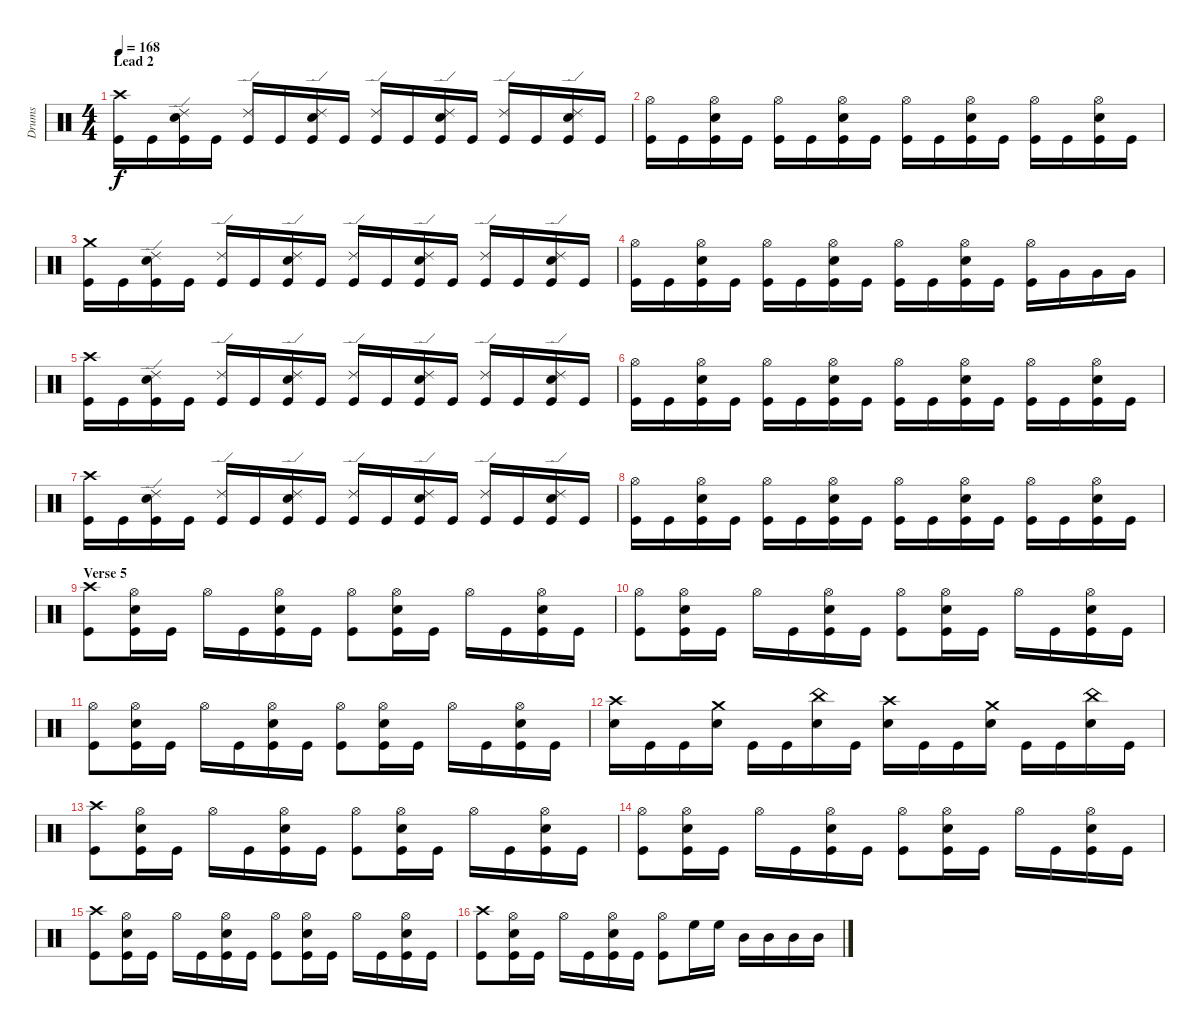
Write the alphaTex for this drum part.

\track ("Drums" "Drums") {instrument percussion}
\staff {score}
\articulation defaults
\ts (4 4)
\section ("" "Lead 2")
\tempo 168
\clef neutral
\ks c
("Crash high (hit)" "Kick (hit)").16{dy f} "Kick (hit)".16 ("Ride (edge) 2" "Electric Snare (hit)" "Kick (hit)").16 "Kick (hit)".16 ("Ride (edge) 2" "Kick (hit)").16 "Kick (hit)".16 ("Ride (edge) 2" "Electric Snare (hit)" "Kick (hit)").16 "Kick (hit)".16 ("Ride (edge) 2" "Kick (hit)").16 "Kick (hit)".16 ("Ride (edge) 2" "Electric Snare (hit)" "Kick (hit)").16 "Kick (hit)".16 ("Ride (edge) 2" "Kick (hit)").16 "Kick (hit)".16 ("Ride (edge) 2" "Electric Snare (hit)" "Kick (hit)").16 "Kick (hit)".16 |
("Hi-Hat (open)" "Kick (hit)").16 "Kick (hit)".16 ("Hi-Hat (open)" "Electric Snare (hit)" "Kick (hit)").16 "Kick (hit)".16 ("Hi-Hat (open)" "Kick (hit)").16 "Kick (hit)".16 ("Hi-Hat (open)" "Electric Snare (hit)" "Kick (hit)").16 "Kick (hit)".16 ("Hi-Hat (open)" "Kick (hit)").16 "Kick (hit)".16 ("Hi-Hat (open)" "Electric Snare (hit)" "Kick (hit)").16 "Kick (hit)".16 ("Hi-Hat (open)" "Kick (hit)").16 "Kick (hit)".16 ("Hi-Hat (open)" "Electric Snare (hit)" "Kick (hit)").16 "Kick (hit)".16 |
("Crash medium (hit)" "Kick (hit)").16 "Kick (hit)".16 ("Ride (edge) 2" "Electric Snare (hit)" "Kick (hit)").16 "Kick (hit)".16 ("Ride (edge) 2" "Kick (hit)").16 "Kick (hit)".16 ("Ride (edge) 2" "Electric Snare (hit)" "Kick (hit)").16 "Kick (hit)".16 ("Ride (edge) 2" "Kick (hit)").16 "Kick (hit)".16 ("Ride (edge) 2" "Electric Snare (hit)" "Kick (hit)").16 "Kick (hit)".16 ("Ride (edge) 2" "Kick (hit)").16 "Kick (hit)".16 ("Ride (edge) 2" "Electric Snare (hit)" "Kick (hit)").16 "Kick (hit)".16 |
("Hi-Hat (open)" "Kick (hit)").16 "Kick (hit)".16 ("Hi-Hat (open)" "Electric Snare (hit)" "Kick (hit)").16 "Kick (hit)".16 ("Hi-Hat (open)" "Kick (hit)").16 "Kick (hit)".16 ("Hi-Hat (open)" "Electric Snare (hit)" "Kick (hit)").16 "Kick (hit)".16 ("Hi-Hat (open)" "Kick (hit)").16 "Kick (hit)".16 ("Hi-Hat (open)" "Electric Snare (hit)" "Kick (hit)").16 "Kick (hit)".16 ("Hi-Hat (open)" "Kick (hit)").16 "Very Low Tom (hit)".16 "Very Low Tom (hit)".16 "Very Low Tom (hit)".16 |
("Crash high (hit)" "Kick (hit)").16 "Kick (hit)".16 ("Ride (edge) 2" "Electric Snare (hit)" "Kick (hit)").16 "Kick (hit)".16 ("Ride (edge) 2" "Kick (hit)").16 "Kick (hit)".16 ("Ride (edge) 2" "Electric Snare (hit)" "Kick (hit)").16 "Kick (hit)".16 ("Ride (edge) 2" "Kick (hit)").16 "Kick (hit)".16 ("Ride (edge) 2" "Electric Snare (hit)" "Kick (hit)").16 "Kick (hit)".16 ("Ride (edge) 2" "Kick (hit)").16 "Kick (hit)".16 ("Ride (edge) 2" "Electric Snare (hit)" "Kick (hit)").16 "Kick (hit)".16 |
("Hi-Hat (open)" "Kick (hit)").16 "Kick (hit)".16 ("Hi-Hat (open)" "Electric Snare (hit)" "Kick (hit)").16 "Kick (hit)".16 ("Hi-Hat (open)" "Kick (hit)").16 "Kick (hit)".16 ("Hi-Hat (open)" "Electric Snare (hit)" "Kick (hit)").16 "Kick (hit)".16 ("Hi-Hat (open)" "Kick (hit)").16 "Kick (hit)".16 ("Hi-Hat (open)" "Electric Snare (hit)" "Kick (hit)").16 "Kick (hit)".16 ("Hi-Hat (open)" "Kick (hit)").16 "Kick (hit)".16 ("Hi-Hat (open)" "Electric Snare (hit)" "Kick (hit)").16 "Kick (hit)".16 |
("Crash high (hit)" "Kick (hit)").16 "Kick (hit)".16 ("Ride (edge) 2" "Electric Snare (hit)" "Kick (hit)").16 "Kick (hit)".16 ("Ride (edge) 2" "Kick (hit)").16 "Kick (hit)".16 ("Ride (edge) 2" "Electric Snare (hit)" "Kick (hit)").16 "Kick (hit)".16 ("Ride (edge) 2" "Kick (hit)").16 "Kick (hit)".16 ("Ride (edge) 2" "Electric Snare (hit)" "Kick (hit)").16 "Kick (hit)".16 ("Ride (edge) 2" "Kick (hit)").16 "Kick (hit)".16 ("Ride (edge) 2" "Electric Snare (hit)" "Kick (hit)").16 "Kick (hit)".16 |
("Hi-Hat (open)" "Kick (hit)").16 "Kick (hit)".16 ("Hi-Hat (open)" "Electric Snare (hit)" "Kick (hit)").16 "Kick (hit)".16 ("Hi-Hat (open)" "Kick (hit)").16 "Kick (hit)".16 ("Hi-Hat (open)" "Electric Snare (hit)" "Kick (hit)").16 "Kick (hit)".16 ("Hi-Hat (open)" "Kick (hit)").16 "Kick (hit)".16 ("Hi-Hat (open)" "Electric Snare (hit)" "Kick (hit)").16 "Kick (hit)".16 ("Hi-Hat (open)" "Kick (hit)").16 "Kick (hit)".16 ("Hi-Hat (open)" "Electric Snare (hit)" "Kick (hit)").16 "Kick (hit)".16 |
\section ("" "Verse 5")
("Crash high (hit)" "Kick (hit)").8 ("Hi-Hat (open)" "Electric Snare (hit)" "Kick (hit)").16 "Kick (hit)".16 "Hi-Hat (open)".16 "Kick (hit)".16 ("Hi-Hat (open)" "Electric Snare (hit)" "Kick (hit)").16 "Kick (hit)".16 ("Hi-Hat (open)" "Kick (hit)").8 ("Hi-Hat (open)" "Electric Snare (hit)" "Kick (hit)").16 "Kick (hit)".16 "Hi-Hat (open)".16 "Kick (hit)".16 ("Hi-Hat (open)" "Electric Snare (hit)" "Kick (hit)").16 "Kick (hit)".16 |
("Hi-Hat (open)" "Kick (hit)").8 ("Hi-Hat (open)" "Electric Snare (hit)" "Kick (hit)").16 "Kick (hit)".16 "Hi-Hat (open)".16 "Kick (hit)".16 ("Hi-Hat (open)" "Electric Snare (hit)" "Kick (hit)").16 "Kick (hit)".16 ("Hi-Hat (open)" "Kick (hit)").8 ("Hi-Hat (open)" "Electric Snare (hit)" "Kick (hit)").16 "Kick (hit)".16 "Hi-Hat (open)".16 "Kick (hit)".16 ("Hi-Hat (open)" "Electric Snare (hit)" "Kick (hit)").16 "Kick (hit)".16 |
("Hi-Hat (open)" "Kick (hit)").8 ("Hi-Hat (open)" "Electric Snare (hit)" "Kick (hit)").16 "Kick (hit)".16 "Hi-Hat (open)".16 "Kick (hit)".16 ("Hi-Hat (open)" "Electric Snare (hit)" "Kick (hit)").16 "Kick (hit)".16 ("Hi-Hat (open)" "Kick (hit)").8 ("Hi-Hat (open)" "Electric Snare (hit)" "Kick (hit)").16 "Kick (hit)".16 "Hi-Hat (open)".16 "Kick (hit)".16 ("Hi-Hat (open)" "Electric Snare (hit)" "Kick (hit)").16 "Kick (hit)".16 |
("Crash high (hit)" "Electric Snare (hit)").16 "Kick (hit)".16 "Kick (hit)".16 ("Crash medium (hit)" "Electric Snare (hit)").16 "Kick (hit)".16 "Kick (hit)".16 ("China (hit)" "Electric Snare (hit)").16 "Kick (hit)".16 ("Crash high (hit)" "Electric Snare (hit)").16 "Kick (hit)".16 "Kick (hit)".16 ("Crash medium (hit)" "Electric Snare (hit)").16 "Kick (hit)".16 "Kick (hit)".16 ("China (hit)" "Electric Snare (hit)").16 "Kick (hit)".16 |
("Crash high (hit)" "Kick (hit)").8 ("Hi-Hat (open)" "Electric Snare (hit)" "Kick (hit)").16 "Kick (hit)".16 "Hi-Hat (open)".16 "Kick (hit)".16 ("Hi-Hat (open)" "Electric Snare (hit)" "Kick (hit)").16 "Kick (hit)".16 ("Hi-Hat (open)" "Kick (hit)").8 ("Hi-Hat (open)" "Electric Snare (hit)" "Kick (hit)").16 "Kick (hit)".16 "Hi-Hat (open)".16 "Kick (hit)".16 ("Hi-Hat (open)" "Electric Snare (hit)" "Kick (hit)").16 "Kick (hit)".16 |
("Hi-Hat (open)" "Kick (hit)").8 ("Hi-Hat (open)" "Electric Snare (hit)" "Kick (hit)").16 "Kick (hit)".16 "Hi-Hat (open)".16 "Kick (hit)".16 ("Hi-Hat (open)" "Electric Snare (hit)" "Kick (hit)").16 "Kick (hit)".16 ("Hi-Hat (open)" "Kick (hit)").8 ("Hi-Hat (open)" "Electric Snare (hit)" "Kick (hit)").16 "Kick (hit)".16 "Hi-Hat (open)".16 "Kick (hit)".16 ("Hi-Hat (open)" "Electric Snare (hit)" "Kick (hit)").16 "Kick (hit)".16 |
("Crash high (hit)" "Kick (hit)").8 ("Hi-Hat (open)" "Electric Snare (hit)" "Kick (hit)").16 "Kick (hit)".16 "Hi-Hat (open)".16 "Kick (hit)".16 ("Hi-Hat (open)" "Electric Snare (hit)" "Kick (hit)").16 "Kick (hit)".16 ("Hi-Hat (open)" "Kick (hit)").8 ("Hi-Hat (open)" "Electric Snare (hit)" "Kick (hit)").16 "Kick (hit)".16 "Hi-Hat (open)".16 "Kick (hit)".16 ("Hi-Hat (open)" "Electric Snare (hit)" "Kick (hit)").16 "Kick (hit)".16 |
("Crash high (hit)" "Kick (hit)").8 ("Hi-Hat (open)" "Electric Snare (hit)" "Kick (hit)").16 "Kick (hit)".16 "Hi-Hat (open)".16 "Kick (hit)".16 ("Hi-Hat (open)" "Electric Snare (hit)" "Kick (hit)").16 "Kick (hit)".16 ("Hi-Hat (open)" "Kick (hit)").8 "High Floor Tom (hit)".16 "High Floor Tom (hit)".16 "Mid Tom (hit)".16 "Mid Tom (hit)".16 "Mid Tom (hit)".16 "Mid Tom (hit)".16
